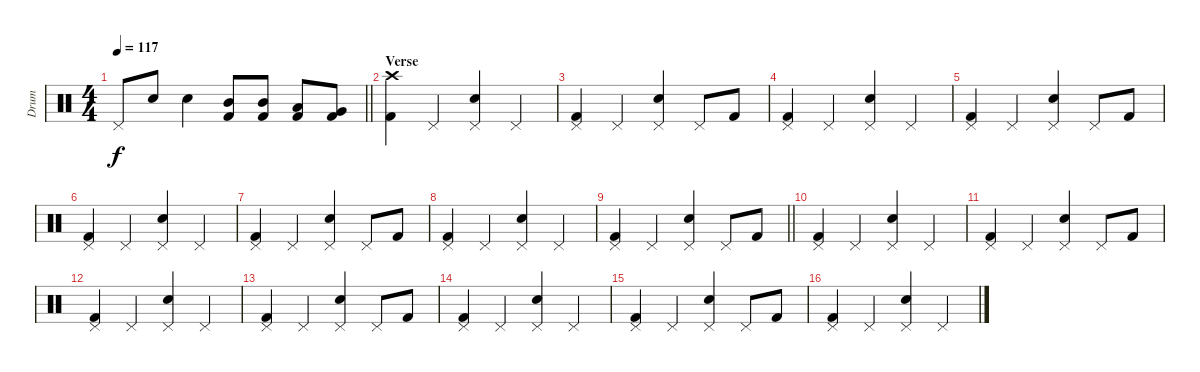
\track ("Drum" "Drum") {instrument percussion}
\staff {score}
\articulation defaults
\ts (4 4)
\tempo 117
\clef neutral
\barLineRight lightlight
\ks c "Pedal Hi-Hat (hit)".8{dy f} "Electric Snare (hit)".8 "Electric Snare (hit)".4
("Mid Tom (hit)" "Kick (hit) 2").8 ("Mid Tom (hit)" "Kick (hit) 2").8 ("Low Tom (hit)" "Kick (hit) 2").8 ("Very Low Tom (hit)" "Kick (hit) 2").8 |
\section ("" "Verse")
("Crash high (hit)" "Kick (hit) 2").4 "Pedal Hi-Hat (hit)".4 ("Pedal Hi-Hat (hit)" "Electric Snare (hit)").4 "Pedal Hi-Hat (hit)".4 |
("Pedal Hi-Hat (hit)" "Kick (hit) 2").4 "Pedal Hi-Hat (hit)".4 ("Pedal Hi-Hat (hit)" "Electric Snare (hit)").4 "Pedal Hi-Hat (hit)".8 "Kick (hit) 2".8 |
("Pedal Hi-Hat (hit)" "Kick (hit) 2").4 "Pedal Hi-Hat (hit)".4 ("Pedal Hi-Hat (hit)" "Electric Snare (hit)").4 "Pedal Hi-Hat (hit)".4 |
("Pedal Hi-Hat (hit)" "Kick (hit) 2").4 "Pedal Hi-Hat (hit)".4 ("Pedal Hi-Hat (hit)" "Electric Snare (hit)").4 "Pedal Hi-Hat (hit)".8 "Kick (hit) 2".8 |
("Pedal Hi-Hat (hit)" "Kick (hit) 2").4 "Pedal Hi-Hat (hit)".4 ("Pedal Hi-Hat (hit)" "Electric Snare (hit)").4 "Pedal Hi-Hat (hit)".4 |
("Pedal Hi-Hat (hit)" "Kick (hit) 2").4 "Pedal Hi-Hat (hit)".4 ("Pedal Hi-Hat (hit)" "Electric Snare (hit)").4 "Pedal Hi-Hat (hit)".8 "Kick (hit) 2".8 |
("Pedal Hi-Hat (hit)" "Kick (hit) 2").4 "Pedal Hi-Hat (hit)".4 ("Pedal Hi-Hat (hit)" "Electric Snare (hit)").4 "Pedal Hi-Hat (hit)".4 |
\barLineRight lightlight
("Pedal Hi-Hat (hit)" "Kick (hit) 2").4 "Pedal Hi-Hat (hit)".4 ("Pedal Hi-Hat (hit)" "Electric Snare (hit)").4 "Pedal Hi-Hat (hit)".8 "Kick (hit) 2".8 |
("Pedal Hi-Hat (hit)" "Kick (hit) 2").4 "Pedal Hi-Hat (hit)".4 ("Pedal Hi-Hat (hit)" "Electric Snare (hit)").4 "Pedal Hi-Hat (hit)".4 |
("Pedal Hi-Hat (hit)" "Kick (hit) 2").4 "Pedal Hi-Hat (hit)".4 ("Pedal Hi-Hat (hit)" "Electric Snare (hit)").4 "Pedal Hi-Hat (hit)".8 "Kick (hit) 2".8 |
("Pedal Hi-Hat (hit)" "Kick (hit) 2").4 "Pedal Hi-Hat (hit)".4 ("Pedal Hi-Hat (hit)" "Electric Snare (hit)").4 "Pedal Hi-Hat (hit)".4 |
("Pedal Hi-Hat (hit)" "Kick (hit) 2").4 "Pedal Hi-Hat (hit)".4 ("Pedal Hi-Hat (hit)" "Electric Snare (hit)").4 "Pedal Hi-Hat (hit)".8 "Kick (hit) 2".8 |
("Pedal Hi-Hat (hit)" "Kick (hit) 2").4 "Pedal Hi-Hat (hit)".4 ("Pedal Hi-Hat (hit)" "Electric Snare (hit)").4 "Pedal Hi-Hat (hit)".4 |
("Pedal Hi-Hat (hit)" "Kick (hit) 2").4 "Pedal Hi-Hat (hit)".4 ("Pedal Hi-Hat (hit)" "Electric Snare (hit)").4 "Pedal Hi-Hat (hit)".8 "Kick (hit) 2".8 |
("Pedal Hi-Hat (hit)" "Kick (hit) 2").4 "Pedal Hi-Hat (hit)".4 ("Pedal Hi-Hat (hit)" "Electric Snare (hit)").4 "Pedal Hi-Hat (hit)".4
